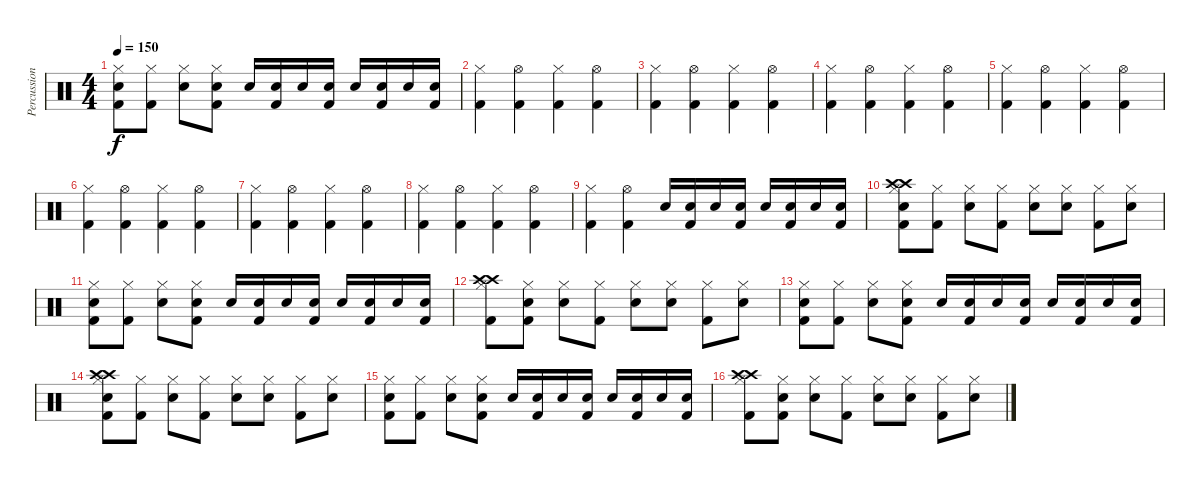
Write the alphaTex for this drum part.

\track ("Percussion" "Percussion") {instrument percussion}
\staff {score}
\articulation defaults
\ts (4 4)
\tempo 150
\clef neutral
\ks c
("Hi-Hat (closed)" "Electric Snare (hit)" "Kick (hit) 2").8{dy f} ("Hi-Hat (closed)" "Kick (hit) 2").8 ("Hi-Hat (closed)" "Snare (hit) 2").8 ("Hi-Hat (closed)" "Electric Snare (hit)" "Kick (hit) 2").8 "Electric Snare (hit)".16 ("Electric Snare (hit)" "Kick (hit) 2").16 "Electric Snare (hit)".16 ("Electric Snare (hit)" "Kick (hit) 2").16 "Electric Snare (hit)".16 ("Electric Snare (hit)" "Kick (hit) 2").16 "Electric Snare (hit)".16 ("Electric Snare (hit)" "Kick (hit) 2").16 |
("Hi-Hat (closed)" "Kick (hit) 2").4 ("Hi-Hat (open)" "Kick (hit) 2").4 ("Hi-Hat (closed)" "Kick (hit) 2").4 ("Hi-Hat (open)" "Kick (hit) 2").4 |
("Hi-Hat (closed)" "Kick (hit) 2").4 ("Hi-Hat (open)" "Kick (hit) 2").4 ("Hi-Hat (closed)" "Kick (hit) 2").4 ("Hi-Hat (open)" "Kick (hit) 2").4 |
("Hi-Hat (closed)" "Kick (hit) 2").4 ("Hi-Hat (open)" "Kick (hit) 2").4 ("Hi-Hat (closed)" "Kick (hit) 2").4 ("Hi-Hat (open)" "Kick (hit) 2").4 |
("Hi-Hat (closed)" "Kick (hit) 2").4 ("Hi-Hat (open)" "Kick (hit) 2").4 ("Hi-Hat (closed)" "Kick (hit) 2").4 ("Hi-Hat (open)" "Kick (hit) 2").4 |
("Hi-Hat (closed)" "Kick (hit) 2").4 ("Hi-Hat (open)" "Kick (hit) 2").4 ("Hi-Hat (closed)" "Kick (hit) 2").4 ("Hi-Hat (open)" "Kick (hit) 2").4 |
("Hi-Hat (closed)" "Kick (hit) 2").4 ("Hi-Hat (open)" "Kick (hit) 2").4 ("Hi-Hat (closed)" "Kick (hit) 2").4 ("Hi-Hat (open)" "Kick (hit) 2").4 |
("Hi-Hat (closed)" "Kick (hit) 2").4 ("Hi-Hat (open)" "Kick (hit) 2").4 ("Hi-Hat (closed)" "Kick (hit) 2").4 ("Hi-Hat (open)" "Kick (hit) 2").4 |
("Hi-Hat (closed)" "Kick (hit) 2").4 ("Hi-Hat (open)" "Kick (hit) 2").4 "Electric Snare (hit)".16 ("Kick (hit) 2" "Electric Snare (hit)").16 "Electric Snare (hit)".16 ("Kick (hit) 2" "Electric Snare (hit)").16 "Electric Snare (hit)".16 ("Kick (hit) 2" "Electric Snare (hit)").16 "Electric Snare (hit)".16 ("Kick (hit) 2" "Electric Snare (hit)").16 |
("Crash high (hit)" "Crash high (hit)" "Hi-Hat (closed)" "Snare (hit) 2" "Kick (hit) 2").8 ("Hi-Hat (closed)" "Kick (hit) 2").8 ("Hi-Hat (closed)" "Electric Snare (hit)").8 ("Hi-Hat (closed)" "Kick (hit) 2").8 ("Hi-Hat (closed)" "Snare (hit) 2").8 ("Hi-Hat (closed)" "Electric Snare (hit)").8 ("Hi-Hat (closed)" "Kick (hit) 2").8 ("Hi-Hat (closed)" "Snare (hit) 2").8 |
("Hi-Hat (closed)" "Electric Snare (hit)" "Kick (hit) 2").8 ("Hi-Hat (closed)" "Kick (hit) 2").8 ("Hi-Hat (closed)" "Snare (hit) 2").8 ("Hi-Hat (closed)" "Electric Snare (hit)" "Kick (hit) 2").8 "Electric Snare (hit)".16 ("Electric Snare (hit)" "Kick (hit) 2").16 "Electric Snare (hit)".16 ("Electric Snare (hit)" "Kick (hit) 2").16 "Electric Snare (hit)".16 ("Electric Snare (hit)" "Kick (hit) 2").16 "Electric Snare (hit)".16 ("Electric Snare (hit)" "Kick (hit) 2").16 |
("Crash high (hit)" "Crash high (hit)" "Hi-Hat (closed)" "Kick (hit) 2").8 ("Hi-Hat (closed)" "Snare (hit) 2" "Kick (hit) 2").8 ("Hi-Hat (closed)" "Electric Snare (hit)").8 ("Hi-Hat (closed)" "Kick (hit) 2").8 ("Hi-Hat (closed)" "Snare (hit) 2").8 ("Hi-Hat (closed)" "Electric Snare (hit)").8 ("Hi-Hat (closed)" "Kick (hit) 2").8 ("Hi-Hat (closed)" "Snare (hit) 2").8 |
("Hi-Hat (closed)" "Electric Snare (hit)" "Kick (hit) 2").8 ("Hi-Hat (closed)" "Kick (hit) 2").8 ("Hi-Hat (closed)" "Snare (hit) 2").8 ("Hi-Hat (closed)" "Electric Snare (hit)" "Kick (hit) 2").8 "Electric Snare (hit)".16 ("Electric Snare (hit)" "Kick (hit) 2").16 "Electric Snare (hit)".16 ("Electric Snare (hit)" "Kick (hit) 2").16 "Electric Snare (hit)".16 ("Electric Snare (hit)" "Kick (hit) 2").16 "Electric Snare (hit)".16 ("Electric Snare (hit)" "Kick (hit) 2").16 |
("Crash high (hit)" "Crash high (hit)" "Hi-Hat (closed)" "Snare (hit) 2" "Kick (hit) 2").8 ("Hi-Hat (closed)" "Kick (hit) 2").8 ("Hi-Hat (closed)" "Electric Snare (hit)").8 ("Hi-Hat (closed)" "Kick (hit) 2").8 ("Hi-Hat (closed)" "Snare (hit) 2").8 ("Hi-Hat (closed)" "Electric Snare (hit)").8 ("Hi-Hat (closed)" "Kick (hit) 2").8 ("Hi-Hat (closed)" "Snare (hit) 2").8 |
("Hi-Hat (closed)" "Electric Snare (hit)" "Kick (hit) 2").8 ("Hi-Hat (closed)" "Kick (hit) 2").8 ("Hi-Hat (closed)" "Snare (hit) 2").8 ("Hi-Hat (closed)" "Electric Snare (hit)" "Kick (hit) 2").8 "Electric Snare (hit)".16 ("Electric Snare (hit)" "Kick (hit) 2").16 "Electric Snare (hit)".16 ("Electric Snare (hit)" "Kick (hit) 2").16 "Electric Snare (hit)".16 ("Electric Snare (hit)" "Kick (hit) 2").16 "Electric Snare (hit)".16 ("Electric Snare (hit)" "Kick (hit) 2").16 |
("Crash high (hit)" "Crash high (hit)" "Hi-Hat (closed)" "Kick (hit) 2").8 ("Hi-Hat (closed)" "Snare (hit) 2" "Kick (hit) 2").8 ("Hi-Hat (closed)" "Electric Snare (hit)").8 ("Hi-Hat (closed)" "Kick (hit) 2").8 ("Hi-Hat (closed)" "Snare (hit) 2").8 ("Hi-Hat (closed)" "Electric Snare (hit)").8 ("Hi-Hat (closed)" "Kick (hit) 2").8 ("Hi-Hat (closed)" "Snare (hit) 2").8
